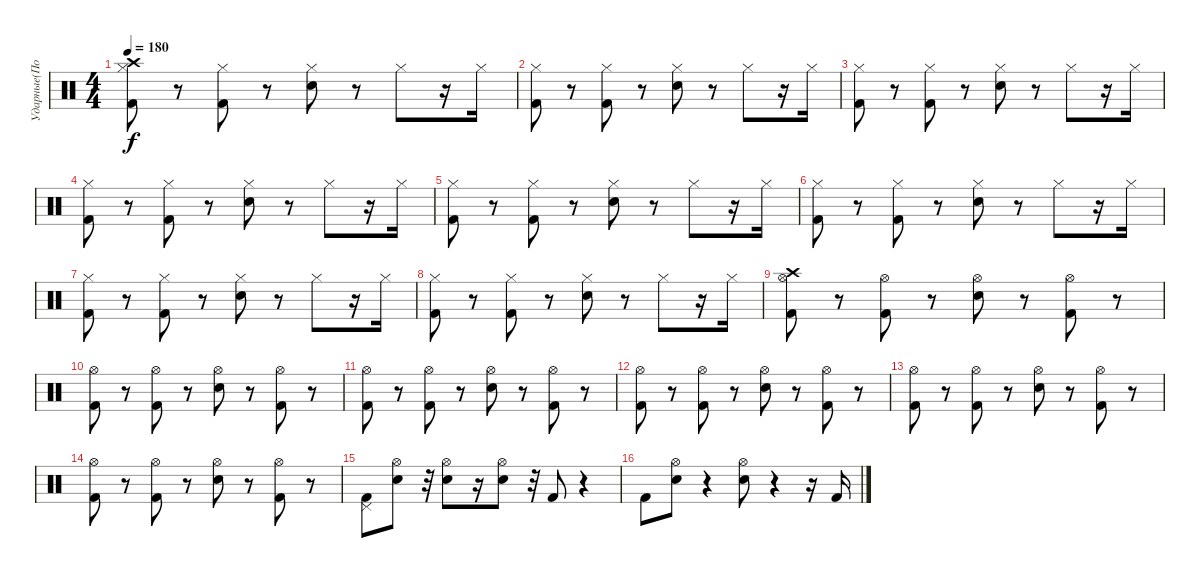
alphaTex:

\track ("Ударные(Потапкин)" "Ударные(По") {instrument percussion}
\staff {score}
\articulation defaults
\ts (4 4)
\tempo 180
\clef neutral
\ks c
("Crash high (hit)" "Kick (hit) 2" "Hi-Hat (closed)").8{dy f} r.8 ("Kick (hit) 2" "Hi-Hat (closed)").8 r.8 ("Electric Snare (hit)" "Hi-Hat (closed)").8 r.8 "Hi-Hat (closed)".8 r.16 "Hi-Hat (closed)".16 |
("Kick (hit) 2" "Hi-Hat (closed)").8 r.8 ("Kick (hit) 2" "Hi-Hat (closed)").8 r.8 ("Electric Snare (hit)" "Hi-Hat (closed)").8 r.8 "Hi-Hat (closed)".8 r.16 "Hi-Hat (closed)".16 |
("Kick (hit) 2" "Hi-Hat (closed)").8 r.8 ("Kick (hit) 2" "Hi-Hat (closed)").8 r.8 ("Electric Snare (hit)" "Hi-Hat (closed)").8 r.8 "Hi-Hat (closed)".8 r.16 "Hi-Hat (closed)".16 |
("Kick (hit) 2" "Hi-Hat (closed)").8 r.8 ("Kick (hit) 2" "Hi-Hat (closed)").8 r.8 ("Electric Snare (hit)" "Hi-Hat (closed)").8 r.8 "Hi-Hat (closed)".8 r.16 "Hi-Hat (closed)".16 |
("Kick (hit) 2" "Hi-Hat (closed)").8 r.8 ("Kick (hit) 2" "Hi-Hat (closed)").8 r.8 ("Electric Snare (hit)" "Hi-Hat (closed)").8 r.8 "Hi-Hat (closed)".8 r.16 "Hi-Hat (closed)".16 |
("Kick (hit) 2" "Hi-Hat (closed)").8 r.8 ("Kick (hit) 2" "Hi-Hat (closed)").8 r.8 ("Electric Snare (hit)" "Hi-Hat (closed)").8 r.8 "Hi-Hat (closed)".8 r.16 "Hi-Hat (closed)".16 |
("Kick (hit) 2" "Hi-Hat (closed)").8 r.8 ("Kick (hit) 2" "Hi-Hat (closed)").8 r.8 ("Electric Snare (hit)" "Hi-Hat (closed)").8 r.8 "Hi-Hat (closed)".8 r.16 "Hi-Hat (closed)".16 |
("Kick (hit) 2" "Hi-Hat (closed)").8 r.8 ("Kick (hit) 2" "Hi-Hat (closed)").8 r.8 ("Electric Snare (hit)" "Hi-Hat (closed)").8 r.8 "Hi-Hat (closed)".8 r.16 "Hi-Hat (closed)".16 |
("Crash high (hit)" "Hi-Hat (open)" "Kick (hit) 2").8 r.8 ("Hi-Hat (open)" "Kick (hit) 2").8 r.8 ("Hi-Hat (open)" "Electric Snare (hit)").8 r.8 ("Hi-Hat (open)" "Kick (hit) 2").8 r.8 |
("Hi-Hat (open)" "Kick (hit) 2").8 r.8 ("Hi-Hat (open)" "Kick (hit) 2").8 r.8 ("Hi-Hat (open)" "Electric Snare (hit)").8 r.8 ("Hi-Hat (open)" "Kick (hit) 2").8 r.8 |
("Hi-Hat (open)" "Kick (hit) 2").8 r.8 ("Hi-Hat (open)" "Kick (hit) 2").8 r.8 ("Hi-Hat (open)" "Electric Snare (hit)").8 r.8 ("Hi-Hat (open)" "Kick (hit) 2").8 r.8 |
("Hi-Hat (open)" "Kick (hit) 2").8 r.8 ("Hi-Hat (open)" "Kick (hit) 2").8 r.8 ("Hi-Hat (open)" "Electric Snare (hit)").8 r.8 ("Hi-Hat (open)" "Kick (hit) 2").8 r.8 |
("Hi-Hat (open)" "Kick (hit) 2").8 r.8 ("Hi-Hat (open)" "Kick (hit) 2").8 r.8 ("Hi-Hat (open)" "Electric Snare (hit)").8 r.8 ("Hi-Hat (open)" "Kick (hit) 2").8 r.8 |
("Hi-Hat (open)" "Kick (hit) 2").8 r.8 ("Hi-Hat (open)" "Kick (hit) 2").8 r.8 ("Hi-Hat (open)" "Electric Snare (hit)").8 r.8 ("Hi-Hat (open)" "Kick (hit) 2").8 r.8 |
("Kick (hit) 2" "Pedal Hi-Hat (hit)").8 ("Electric Snare (hit)" "Hi-Hat (open)").8 r.32 ("Electric Snare (hit)" "Hi-Hat (open)").8 r.16 ("Electric Snare (hit)" "Hi-Hat (open)").8 r.32 "Kick (hit) 2".8 r.4 |
"Kick (hit) 2".8 ("Electric Snare (hit)" "Hi-Hat (open)").8 r.4 ("Electric Snare (hit)" "Hi-Hat (open)").8 r.4 r.16 "Kick (hit) 2".16
